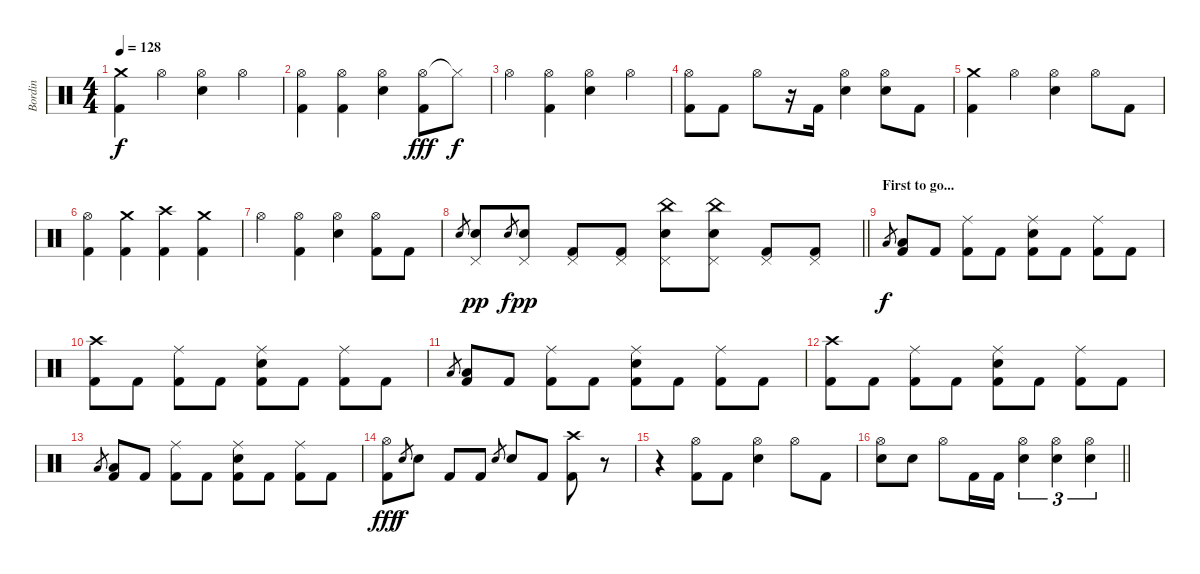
\track ("Bordin" "Bordin") {instrument percussion}
\staff {score}
\articulation defaults
\ts (4 4)
\tempo 128
\clef neutral
\ks c
("Crash medium (hit)" "Kick (hit) 2").4{dy f} "Hi-Hat (open)".4 ("Hi-Hat (open)" "Electric Snare (hit)").4 "Hi-Hat (open)".4 |
("Hi-Hat (open)" "Kick (hit) 2").4 ("Hi-Hat (open)" "Kick (hit) 2").4 ("Hi-Hat (open)" "Electric Snare (hit)").4 ("Hi-Hat (open)" "Kick (hit) 2").8{dy fff} "Hi-Hat (closed)"{t}.8{dy f} |
"Hi-Hat (open)".4 ("Hi-Hat (open)" "Kick (hit) 2").4 ("Hi-Hat (open)" "Electric Snare (hit)").4 "Hi-Hat (open)".4 |
("Hi-Hat (open)" "Kick (hit) 2").8 "Kick (hit) 2".8 "Hi-Hat (open)".8 r.16 "Kick (hit) 2".16 ("Hi-Hat (open)" "Electric Snare (hit)").4 ("Hi-Hat (open)" "Electric Snare (hit)").8 "Kick (hit) 2".8 |
("Crash medium (hit)" "Kick (hit) 2").4 "Hi-Hat (open)".4 ("Hi-Hat (open)" "Electric Snare (hit)").4 "Hi-Hat (open)".8 "Kick (hit) 2".8 |
("Hi-Hat (open)" "Kick (hit) 2").4 ("Crash medium (hit)" "Kick (hit) 2").4 ("Crash high (hit)" "Kick (hit) 2").4 ("Crash medium (hit)" "Kick (hit) 2").4 |
"Hi-Hat (open)".4 ("Hi-Hat (open)" "Kick (hit) 2").4 ("Hi-Hat (open)" "Electric Snare (hit)").4 ("Hi-Hat (open)" "Kick (hit) 2").8 "Kick (hit) 2".8 |
\barLineRight lightlight "Electric Snare (hit)".8{gr}
("Pedal Hi-Hat (hit)" "Electric Snare (hit)").8{dy pp} "Electric Snare (hit)".8{gr dy f} ("Pedal Hi-Hat (hit)" "Electric Snare (hit)").8{dy pp} ("Pedal Hi-Hat (hit)" "Kick (hit) 2").8 ("Pedal Hi-Hat (hit)" "Kick (hit) 2").8 ("China (hit)" "Pedal Hi-Hat (hit)" "Electric Snare (hit)").8 ("China (hit)" "Pedal Hi-Hat (hit)" "Electric Snare (hit)").8 ("Pedal Hi-Hat (hit)" "Kick (hit) 2").8 ("Pedal Hi-Hat (hit)" "Kick (hit) 2").8 |
\section ("" "First to go...")
"Low Tom (hit)".8{gr dy f} ("Low Tom (hit)" "Kick (hit) 2").8 "Kick (hit) 2".8 ("Ride (middle)" "Kick (hit) 2").8 "Kick (hit) 2".8 ("Ride (middle)" "Electric Snare (hit)" "Kick (hit) 2").8 "Kick (hit) 2".8 ("Ride (middle)" "Kick (hit) 2").8 "Kick (hit) 2".8 |
("Crash high (hit)" "Kick (hit) 2").8 "Kick (hit) 2".8 ("Ride (middle)" "Kick (hit) 2").8 "Kick (hit) 2".8 ("Ride (middle)" "Electric Snare (hit)" "Kick (hit) 2").8 "Kick (hit) 2".8 ("Ride (middle)" "Kick (hit) 2").8 "Kick (hit) 2".8 |
"Low Tom (hit)".8{gr} ("Low Tom (hit)" "Kick (hit) 2").8 "Kick (hit) 2".8 ("Ride (middle)" "Kick (hit) 2").8 "Kick (hit) 2".8 ("Ride (middle)" "Electric Snare (hit)" "Kick (hit) 2").8 "Kick (hit) 2".8 ("Ride (middle)" "Kick (hit) 2").8 "Kick (hit) 2".8 |
("Crash high (hit)" "Kick (hit) 2").8 "Kick (hit) 2".8 ("Ride (middle)" "Kick (hit) 2").8 "Kick (hit) 2".8 ("Ride (middle)" "Electric Snare (hit)" "Kick (hit) 2").8 "Kick (hit) 2".8 ("Ride (middle)" "Kick (hit) 2").8 "Kick (hit) 2".8 |
"Low Tom (hit)".8{gr} ("Low Tom (hit)" "Kick (hit) 2").8 "Kick (hit) 2".8 ("Ride (middle)" "Kick (hit) 2").8 "Kick (hit) 2".8 ("Ride (middle)" "Electric Snare (hit)" "Kick (hit) 2").8 "Kick (hit) 2".8 ("Ride (middle)" "Kick (hit) 2").8 "Kick (hit) 2".8 |
("Hi-Hat (open)" "Kick (hit) 2").8{dy fff} "Electric Snare (hit)".8{gr dy f} "Electric Snare (hit)".8 "Kick (hit) 2".8 "Kick (hit) 2".8 "Electric Snare (hit)".8{gr} "Electric Snare (hit)".8 "Kick (hit) 2".8 ("Crash high (hit)" "Kick (hit) 2").8 r.8 |
r.4 ("Hi-Hat (open)" "Kick (hit) 2").8 "Kick (hit) 2".8 ("Hi-Hat (open)" "Electric Snare (hit)").4 "Hi-Hat (open)".8 "Kick (hit) 2".8 |
\barLineRight lightlight
("Hi-Hat (open)" "Electric Snare (hit)").8 "Electric Snare (hit)".8 "Hi-Hat (open)".8 "Kick (hit) 2".16 "Kick (hit) 2".16 ("Hi-Hat (open)" "Electric Snare (hit)").4{tu (3 2)} ("Hi-Hat (open)" "Electric Snare (hit)").4{tu (3 2)} ("Hi-Hat (open)" "Electric Snare (hit)").4{tu (3 2)}
